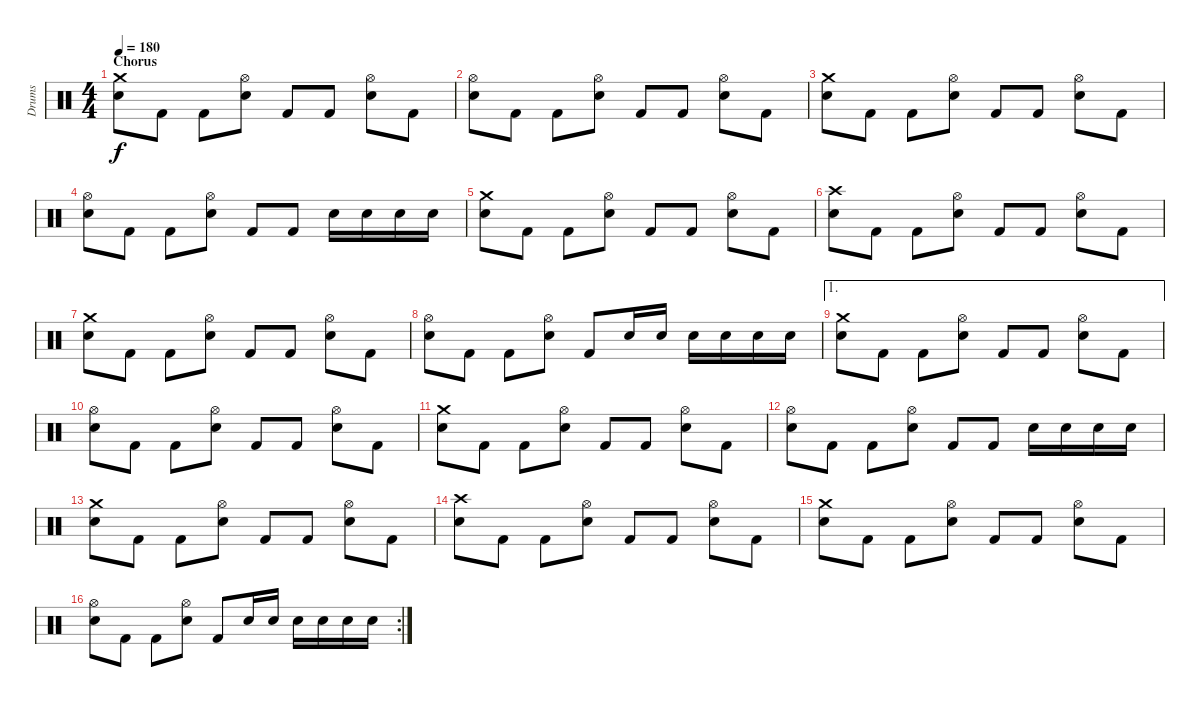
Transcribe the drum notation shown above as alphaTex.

\track ("Drums" "Drums") {instrument percussion}
\staff {score}
\articulation defaults
\ts (4 4)
\section ("" "Chorus")
\tempo 180
\clef neutral
\ks c
("Crash medium (hit)" "Electric Snare (hit)").8{dy f} "Kick (hit) 2".8 "Kick (hit) 2".8 ("Hi-Hat (open)" "Electric Snare (hit)").8 "Kick (hit) 2".8 "Kick (hit) 2".8 ("Hi-Hat (open)" "Electric Snare (hit)").8 "Kick (hit) 2".8 |
("Hi-Hat (open)" "Electric Snare (hit)").8 "Kick (hit) 2".8 "Kick (hit) 2".8 ("Hi-Hat (open)" "Electric Snare (hit)").8 "Kick (hit) 2".8 "Kick (hit) 2".8 ("Hi-Hat (open)" "Electric Snare (hit)").8 "Kick (hit) 2".8 |
("Crash medium (hit)" "Electric Snare (hit)").8 "Kick (hit) 2".8 "Kick (hit) 2".8 ("Hi-Hat (open)" "Electric Snare (hit)").8 "Kick (hit) 2".8 "Kick (hit) 2".8 ("Hi-Hat (open)" "Electric Snare (hit)").8 "Kick (hit) 2".8 |
("Hi-Hat (open)" "Electric Snare (hit)").8 "Kick (hit) 2".8 "Kick (hit) 2".8 ("Hi-Hat (open)" "Electric Snare (hit)").8 "Kick (hit) 2".8 "Kick (hit) 2".8 "Electric Snare (hit)".16 "Electric Snare (hit)".16 "Electric Snare (hit)".16 "Electric Snare (hit)".16 |
("Crash medium (hit)" "Electric Snare (hit)").8 "Kick (hit) 2".8 "Kick (hit) 2".8 ("Hi-Hat (open)" "Electric Snare (hit)").8 "Kick (hit) 2".8 "Kick (hit) 2".8 ("Hi-Hat (open)" "Electric Snare (hit)").8 "Kick (hit) 2".8 |
("Crash high (hit)" "Electric Snare (hit)").8 "Kick (hit) 2".8 "Kick (hit) 2".8 ("Hi-Hat (open)" "Electric Snare (hit)").8 "Kick (hit) 2".8 "Kick (hit) 2".8 ("Hi-Hat (open)" "Electric Snare (hit)").8 "Kick (hit) 2".8 |
("Crash medium (hit)" "Electric Snare (hit)").8 "Kick (hit) 2".8 "Kick (hit) 2".8 ("Hi-Hat (open)" "Electric Snare (hit)").8 "Kick (hit) 2".8 "Kick (hit) 2".8 ("Hi-Hat (open)" "Electric Snare (hit)").8 "Kick (hit) 2".8 |
("Hi-Hat (open)" "Electric Snare (hit)").8 "Kick (hit) 2".8 "Kick (hit) 2".8 ("Hi-Hat (open)" "Electric Snare (hit)").8 "Kick (hit) 2".8 "Electric Snare (hit)".16 "Electric Snare (hit)".16 "Electric Snare (hit)".16 "Electric Snare (hit)".16 "Electric Snare (hit)".16 "Electric Snare (hit)".16 |
\ae 1
("Crash medium (hit)" "Electric Snare (hit)").8 "Kick (hit) 2".8 "Kick (hit) 2".8 ("Hi-Hat (open)" "Electric Snare (hit)").8 "Kick (hit) 2".8 "Kick (hit) 2".8 ("Hi-Hat (open)" "Electric Snare (hit)").8 "Kick (hit) 2".8 |
("Hi-Hat (open)" "Electric Snare (hit)").8 "Kick (hit) 2".8 "Kick (hit) 2".8 ("Hi-Hat (open)" "Electric Snare (hit)").8 "Kick (hit) 2".8 "Kick (hit) 2".8 ("Hi-Hat (open)" "Electric Snare (hit)").8 "Kick (hit) 2".8 |
("Crash medium (hit)" "Electric Snare (hit)").8 "Kick (hit) 2".8 "Kick (hit) 2".8 ("Hi-Hat (open)" "Electric Snare (hit)").8 "Kick (hit) 2".8 "Kick (hit) 2".8 ("Hi-Hat (open)" "Electric Snare (hit)").8 "Kick (hit) 2".8 |
("Hi-Hat (open)" "Electric Snare (hit)").8 "Kick (hit) 2".8 "Kick (hit) 2".8 ("Hi-Hat (open)" "Electric Snare (hit)").8 "Kick (hit) 2".8 "Kick (hit) 2".8 "Electric Snare (hit)".16 "Electric Snare (hit)".16 "Electric Snare (hit)".16 "Electric Snare (hit)".16 |
("Crash medium (hit)" "Electric Snare (hit)").8 "Kick (hit) 2".8 "Kick (hit) 2".8 ("Hi-Hat (open)" "Electric Snare (hit)").8 "Kick (hit) 2".8 "Kick (hit) 2".8 ("Hi-Hat (open)" "Electric Snare (hit)").8 "Kick (hit) 2".8 |
("Crash high (hit)" "Electric Snare (hit)").8 "Kick (hit) 2".8 "Kick (hit) 2".8 ("Hi-Hat (open)" "Electric Snare (hit)").8 "Kick (hit) 2".8 "Kick (hit) 2".8 ("Hi-Hat (open)" "Electric Snare (hit)").8 "Kick (hit) 2".8 |
("Crash medium (hit)" "Electric Snare (hit)").8 "Kick (hit) 2".8 "Kick (hit) 2".8 ("Hi-Hat (open)" "Electric Snare (hit)").8 "Kick (hit) 2".8 "Kick (hit) 2".8 ("Hi-Hat (open)" "Electric Snare (hit)").8 "Kick (hit) 2".8 |
\rc 2
("Hi-Hat (open)" "Electric Snare (hit)").8 "Kick (hit) 2".8 "Kick (hit) 2".8 ("Hi-Hat (open)" "Electric Snare (hit)").8 "Kick (hit) 2".8 "Electric Snare (hit)".16 "Electric Snare (hit)".16 "Electric Snare (hit)".16 "Electric Snare (hit)".16 "Electric Snare (hit)".16 "Electric Snare (hit)".16
